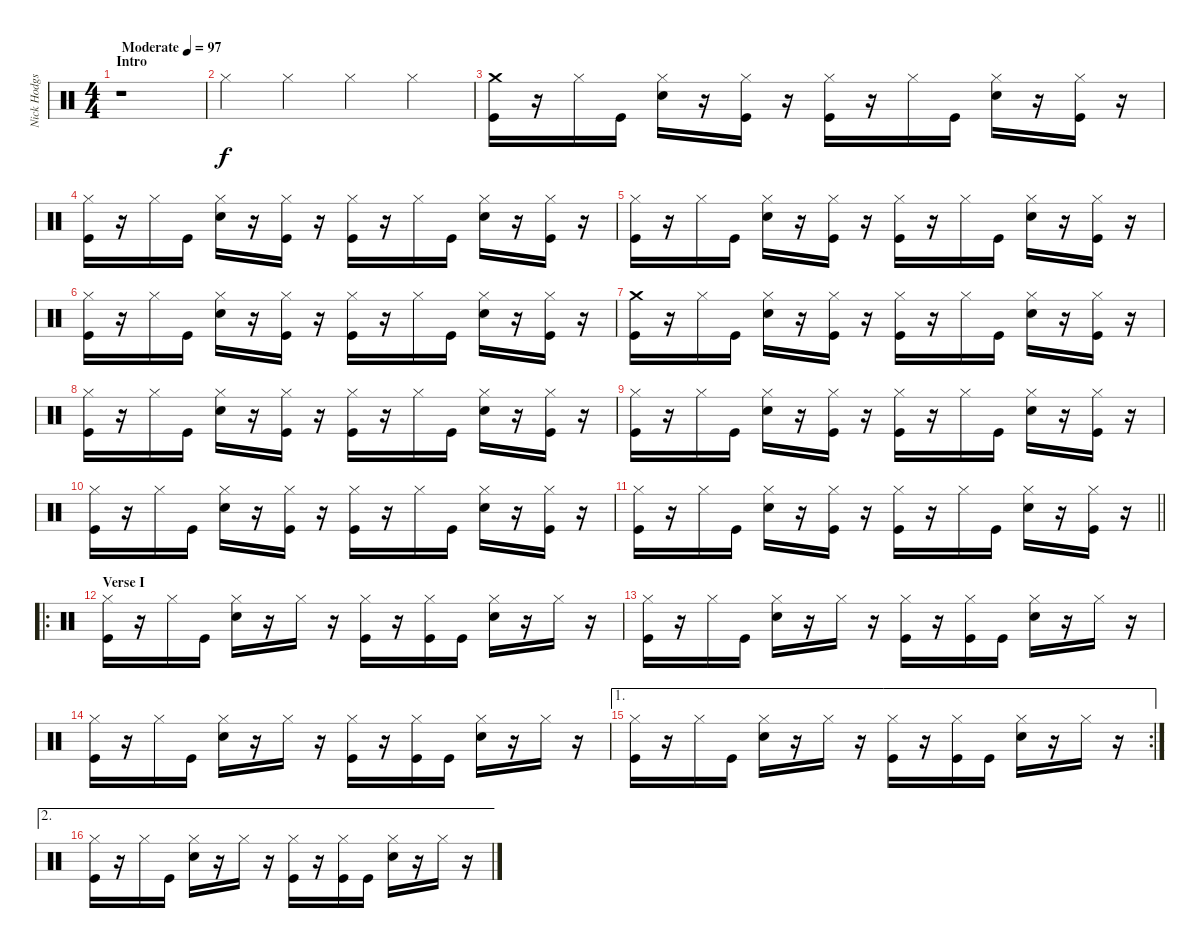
\track ("Nick Hodgson's drums" "Nick Hodgs") {instrument percussion}
\staff {score}
\articulation defaults
\ts (4 4)
\section ("" "Intro")
\tempo (97 "Moderate")
\clef neutral
\ks c
r.1{dy f} |
"Hi-Hat (closed)".4 "Hi-Hat (closed)".4 "Hi-Hat (closed)".4 "Hi-Hat (closed)".4 |
("Crash medium (hit)" "Kick (hit)").16 r.16 "Hi-Hat (closed)".16 "Kick (hit)".16 ("Hi-Hat (closed)" "Snare (hit) 2").16 r.16 ("Hi-Hat (closed)" "Kick (hit)").16 r.16 ("Hi-Hat (closed)" "Kick (hit)").16 r.16 "Hi-Hat (closed)".16 "Kick (hit)".16 ("Hi-Hat (closed)" "Snare (hit) 2").16 r.16 ("Hi-Hat (closed)" "Kick (hit)").16 r.16 |
("Hi-Hat (closed)" "Kick (hit)").16 r.16 "Hi-Hat (closed)".16 "Kick (hit)".16 ("Hi-Hat (closed)" "Snare (hit) 2").16 r.16 ("Hi-Hat (closed)" "Kick (hit)").16 r.16 ("Hi-Hat (closed)" "Kick (hit)").16 r.16 "Hi-Hat (closed)".16 "Kick (hit)".16 ("Hi-Hat (closed)" "Snare (hit) 2").16 r.16 ("Hi-Hat (closed)" "Kick (hit)").16 r.16 |
("Hi-Hat (closed)" "Kick (hit)").16 r.16 "Hi-Hat (closed)".16 "Kick (hit)".16 ("Hi-Hat (closed)" "Snare (hit) 2").16 r.16 ("Hi-Hat (closed)" "Kick (hit)").16 r.16 ("Hi-Hat (closed)" "Kick (hit)").16 r.16 "Hi-Hat (closed)".16 "Kick (hit)".16 ("Hi-Hat (closed)" "Snare (hit) 2").16 r.16 ("Hi-Hat (closed)" "Kick (hit)").16 r.16 |
("Hi-Hat (closed)" "Kick (hit)").16 r.16 "Hi-Hat (closed)".16 "Kick (hit)".16 ("Hi-Hat (closed)" "Snare (hit) 2").16 r.16 ("Hi-Hat (closed)" "Kick (hit)").16 r.16 ("Hi-Hat (closed)" "Kick (hit)").16 r.16 "Hi-Hat (closed)".16 "Kick (hit)".16 ("Hi-Hat (closed)" "Snare (hit) 2").16 r.16 ("Hi-Hat (closed)" "Kick (hit)").16 r.16 |
("Crash medium (hit)" "Kick (hit)").16 r.16 "Hi-Hat (closed)".16 "Kick (hit)".16 ("Hi-Hat (closed)" "Snare (hit) 2").16 r.16 ("Hi-Hat (closed)" "Kick (hit)").16 r.16 ("Hi-Hat (closed)" "Kick (hit)").16 r.16 "Hi-Hat (closed)".16 "Kick (hit)".16 ("Hi-Hat (closed)" "Snare (hit) 2").16 r.16 ("Hi-Hat (closed)" "Kick (hit)").16 r.16 |
("Hi-Hat (closed)" "Kick (hit)").16 r.16 "Hi-Hat (closed)".16 "Kick (hit)".16 ("Hi-Hat (closed)" "Snare (hit) 2").16 r.16 ("Hi-Hat (closed)" "Kick (hit)").16 r.16 ("Hi-Hat (closed)" "Kick (hit)").16 r.16 "Hi-Hat (closed)".16 "Kick (hit)".16 ("Hi-Hat (closed)" "Snare (hit) 2").16 r.16 ("Hi-Hat (closed)" "Kick (hit)").16 r.16 |
("Hi-Hat (closed)" "Kick (hit)").16 r.16 "Hi-Hat (closed)".16 "Kick (hit)".16 ("Hi-Hat (closed)" "Snare (hit) 2").16 r.16 ("Hi-Hat (closed)" "Kick (hit)").16 r.16 ("Hi-Hat (closed)" "Kick (hit)").16 r.16 "Hi-Hat (closed)".16 "Kick (hit)".16 ("Hi-Hat (closed)" "Snare (hit) 2").16 r.16 ("Hi-Hat (closed)" "Kick (hit)").16 r.16 |
("Hi-Hat (closed)" "Kick (hit)").16 r.16 "Hi-Hat (closed)".16 "Kick (hit)".16 ("Hi-Hat (closed)" "Snare (hit) 2").16 r.16 ("Hi-Hat (closed)" "Kick (hit)").16 r.16 ("Hi-Hat (closed)" "Kick (hit)").16 r.16 "Hi-Hat (closed)".16 "Kick (hit)".16 ("Hi-Hat (closed)" "Snare (hit) 2").16 r.16 ("Hi-Hat (closed)" "Kick (hit)").16 r.16 |
\barLineRight lightlight
("Hi-Hat (closed)" "Kick (hit)").16 r.16 "Hi-Hat (closed)".16 "Kick (hit)".16 ("Hi-Hat (closed)" "Snare (hit) 2").16 r.16 ("Hi-Hat (closed)" "Kick (hit)").16 r.16 ("Hi-Hat (closed)" "Kick (hit)").16 r.16 "Hi-Hat (closed)".16 "Kick (hit)".16 ("Hi-Hat (closed)" "Snare (hit) 2").16 r.16 ("Hi-Hat (closed)" "Kick (hit)").16 r.16 |
\ro
\section ("" "Verse I")
("Hi-Hat (closed)" "Kick (hit)").16 r.16 "Hi-Hat (closed)".16 "Kick (hit)".16 ("Hi-Hat (closed)" "Snare (hit) 2").16 r.16 "Hi-Hat (closed)".16 r.16 ("Hi-Hat (closed)" "Kick (hit)").16 r.16 ("Hi-Hat (closed)" "Kick (hit)").16 "Kick (hit)".16 ("Hi-Hat (closed)" "Snare (hit) 2").16 r.16 "Hi-Hat (closed)".16 r.16 |
("Hi-Hat (closed)" "Kick (hit)").16 r.16 "Hi-Hat (closed)".16 "Kick (hit)".16 ("Hi-Hat (closed)" "Snare (hit) 2").16 r.16 "Hi-Hat (closed)".16 r.16 ("Hi-Hat (closed)" "Kick (hit)").16 r.16 ("Hi-Hat (closed)" "Kick (hit)").16 "Kick (hit)".16 ("Hi-Hat (closed)" "Snare (hit) 2").16 r.16 "Hi-Hat (closed)".16 r.16 |
("Hi-Hat (closed)" "Kick (hit)").16 r.16 "Hi-Hat (closed)".16 "Kick (hit)".16 ("Hi-Hat (closed)" "Snare (hit) 2").16 r.16 "Hi-Hat (closed)".16 r.16 ("Hi-Hat (closed)" "Kick (hit)").16 r.16 ("Hi-Hat (closed)" "Kick (hit)").16 "Kick (hit)".16 ("Hi-Hat (closed)" "Snare (hit) 2").16 r.16 "Hi-Hat (closed)".16 r.16 |
\ae 1
\rc 2
("Hi-Hat (closed)" "Kick (hit)").16 r.16 "Hi-Hat (closed)".16 "Kick (hit)".16 ("Hi-Hat (closed)" "Snare (hit) 2").16 r.16 "Hi-Hat (closed)".16 r.16 ("Hi-Hat (closed)" "Kick (hit)").16 r.16 ("Hi-Hat (closed)" "Kick (hit)").16 "Kick (hit)".16 ("Hi-Hat (closed)" "Snare (hit) 2").16 r.16 "Hi-Hat (closed)".16 r.16 |
\ae 2
("Hi-Hat (closed)" "Kick (hit)").16 r.16 "Hi-Hat (closed)".16 "Kick (hit)".16 ("Hi-Hat (closed)" "Snare (hit) 2").16 r.16 "Hi-Hat (closed)".16 r.16 ("Hi-Hat (closed)" "Kick (hit)").16 r.16 ("Hi-Hat (closed)" "Kick (hit)").16 "Kick (hit)".16 ("Hi-Hat (closed)" "Snare (hit) 2").16 r.16 "Hi-Hat (closed)".16 r.16
